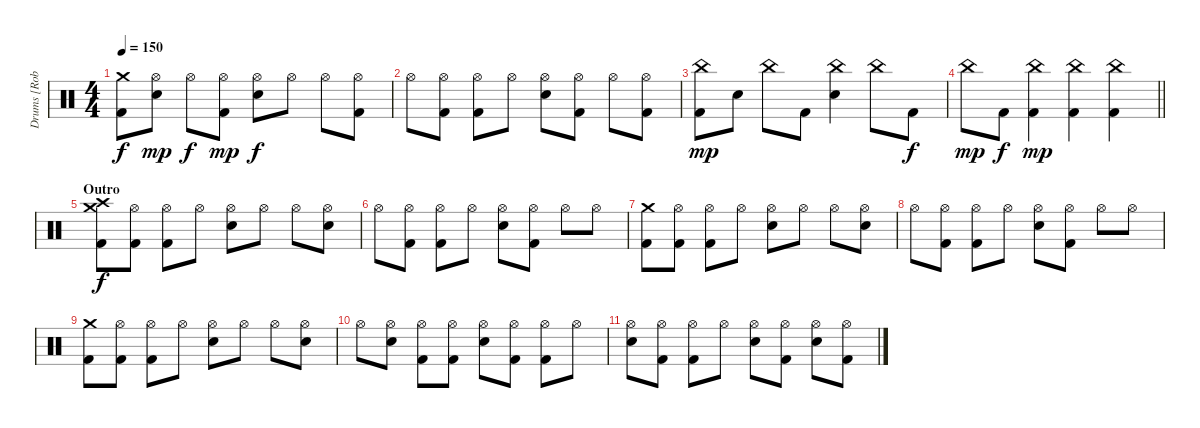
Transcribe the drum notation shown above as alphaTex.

\track ("Drums [Rob Bourdon]" "Drums [Rob") {instrument percussion}
\staff {score}
\articulation defaults
\ts (4 4)
\tempo 150
\clef neutral
\ks c
("Crash medium (hit)" "Kick (hit) 2").8{dy f} ("Hi-Hat (open)" "Snare (hit) 2").8{dy mp} "Hi-Hat (open)".8{dy f} ("Hi-Hat (open)" "Kick (hit) 2").8{dy mp} ("Hi-Hat (open)" "Snare (hit) 2").8{dy f} "Hi-Hat (open)".8 "Hi-Hat (open)".8 ("Hi-Hat (open)" "Kick (hit) 2").8 |
"Hi-Hat (open)".8 ("Hi-Hat (open)" "Kick (hit) 2").8 ("Hi-Hat (open)" "Kick (hit) 2").8 "Hi-Hat (open)".8 ("Hi-Hat (open)" "Snare (hit) 2").8 ("Hi-Hat (open)" "Kick (hit) 2").8 "Hi-Hat (open)".8 ("Hi-Hat (open)" "Kick (hit) 2").8 |
("China (hit)" "Kick (hit) 2").8{dy mp} "Snare (hit) 2".8 "China (hit)".8 "Kick (hit) 2".8 ("China (hit)" "Snare (hit) 2").4 "China (hit)".8 "Kick (hit) 2".8{dy f} |
\barLineRight lightlight "China (hit)".8{dy mp} "Kick (hit) 2".8{dy f}
("China (hit)" "Kick (hit) 2").4{dy mp} ("China (hit)" "Kick (hit) 2").4 ("China (hit)" "Kick (hit) 2").4 |
\section ("" "Outro")
("Crash medium (hit)" "Crash high (hit)" "Kick (hit) 2").8{dy f} ("Hi-Hat (open)" "Kick (hit) 2").8 ("Hi-Hat (open)" "Kick (hit) 2").8 "Hi-Hat (open)".8 ("Hi-Hat (open)" "Electric Snare (hit)").8 "Hi-Hat (open)".8 "Hi-Hat (open)".8 ("Hi-Hat (open)" "Snare (hit) 2").8 |
"Hi-Hat (open)".8 ("Hi-Hat (open)" "Kick (hit) 2").8 ("Hi-Hat (open)" "Kick (hit) 2").8 "Hi-Hat (open)".8 ("Hi-Hat (open)" "Snare (hit) 2").8 ("Hi-Hat (open)" "Kick (hit) 2").8 "Hi-Hat (open)".8 "Hi-Hat (open)".8 |
("Crash medium (hit)" "Kick (hit) 2").8 ("Hi-Hat (open)" "Kick (hit) 2").8 ("Hi-Hat (open)" "Kick (hit) 2").8 "Hi-Hat (open)".8 ("Hi-Hat (open)" "Electric Snare (hit)").8 "Hi-Hat (open)".8 "Hi-Hat (open)".8 ("Hi-Hat (open)" "Snare (hit) 2").8 |
"Hi-Hat (open)".8 ("Hi-Hat (open)" "Kick (hit) 2").8 ("Hi-Hat (open)" "Kick (hit) 2").8 "Hi-Hat (open)".8 ("Hi-Hat (open)" "Snare (hit) 2").8 ("Hi-Hat (open)" "Kick (hit) 2").8 "Hi-Hat (open)".8 "Hi-Hat (open)".8 |
("Crash medium (hit)" "Kick (hit) 2").8 ("Hi-Hat (open)" "Kick (hit) 2").8 ("Hi-Hat (open)" "Kick (hit) 2").8 "Hi-Hat (open)".8 ("Hi-Hat (open)" "Electric Snare (hit)").8 "Hi-Hat (open)".8 "Hi-Hat (open)".8 ("Hi-Hat (open)" "Snare (hit) 2").8 |
"Hi-Hat (open)".8 ("Hi-Hat (open)" "Snare (hit) 2").8 ("Hi-Hat (open)" "Kick (hit) 2").8 ("Hi-Hat (open)" "Kick (hit) 2").8 ("Hi-Hat (open)" "Snare (hit) 2").8 ("Hi-Hat (open)" "Kick (hit) 2").8 ("Hi-Hat (open)" "Kick (hit) 2").8 "Hi-Hat (open)".8 |
("Hi-Hat (open)" "Snare (hit) 2").8 ("Hi-Hat (open)" "Kick (hit) 2").8 ("Hi-Hat (open)" "Kick (hit) 2").8 "Hi-Hat (open)".8 ("Hi-Hat (open)" "Snare (hit) 2").8 ("Hi-Hat (open)" "Kick (hit) 2").8 ("Hi-Hat (open)" "Snare (hit) 2").8 ("Hi-Hat (open)" "Kick (hit) 2").8
